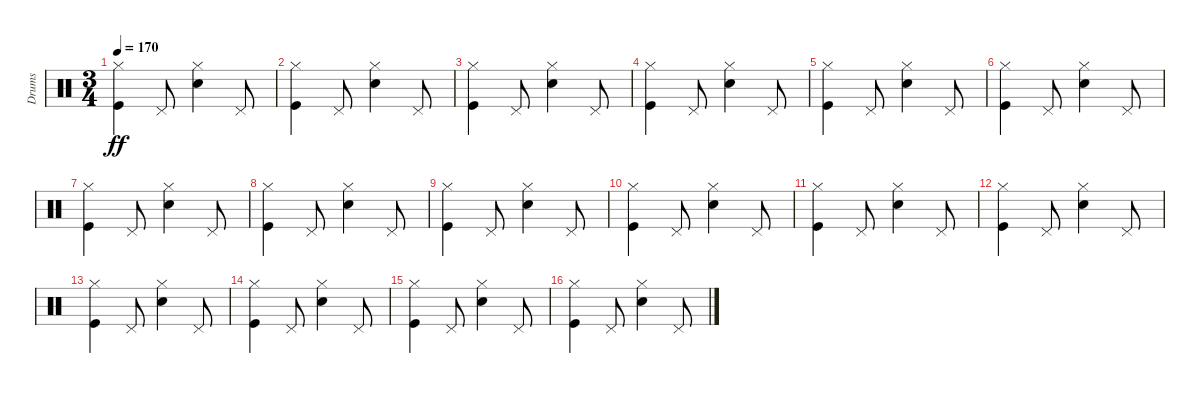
\track ("Drums" "Drums") {instrument percussion}
\staff {score}
\articulation defaults
\ts (3 4)
\tempo 170
\clef neutral
\ks c
("Hi-Hat (closed)" "Kick (hit)").4{dy ff} "Pedal Hi-Hat (hit)".8 ("Hi-Hat (closed)" "Snare (hit) 2").4 "Pedal Hi-Hat (hit)".8 |
("Hi-Hat (closed)" "Kick (hit)").4 "Pedal Hi-Hat (hit)".8 ("Hi-Hat (closed)" "Snare (hit) 2").4 "Pedal Hi-Hat (hit)".8 |
("Hi-Hat (closed)" "Kick (hit)").4 "Pedal Hi-Hat (hit)".8 ("Hi-Hat (closed)" "Snare (hit) 2").4 "Pedal Hi-Hat (hit)".8 |
("Hi-Hat (closed)" "Kick (hit)").4 "Pedal Hi-Hat (hit)".8 ("Hi-Hat (closed)" "Snare (hit) 2").4 "Pedal Hi-Hat (hit)".8 |
("Hi-Hat (closed)" "Kick (hit)").4 "Pedal Hi-Hat (hit)".8 ("Hi-Hat (closed)" "Snare (hit) 2").4 "Pedal Hi-Hat (hit)".8 |
("Hi-Hat (closed)" "Kick (hit)").4 "Pedal Hi-Hat (hit)".8 ("Hi-Hat (closed)" "Snare (hit) 2").4 "Pedal Hi-Hat (hit)".8 |
("Hi-Hat (closed)" "Kick (hit)").4 "Pedal Hi-Hat (hit)".8 ("Hi-Hat (closed)" "Snare (hit) 2").4 "Pedal Hi-Hat (hit)".8 |
("Hi-Hat (closed)" "Kick (hit)").4 "Pedal Hi-Hat (hit)".8 ("Hi-Hat (closed)" "Snare (hit) 2").4 "Pedal Hi-Hat (hit)".8 |
("Hi-Hat (closed)" "Kick (hit)").4 "Pedal Hi-Hat (hit)".8 ("Hi-Hat (closed)" "Snare (hit) 2").4 "Pedal Hi-Hat (hit)".8 |
("Hi-Hat (closed)" "Kick (hit)").4 "Pedal Hi-Hat (hit)".8 ("Hi-Hat (closed)" "Snare (hit) 2").4 "Pedal Hi-Hat (hit)".8 |
("Hi-Hat (closed)" "Kick (hit)").4 "Pedal Hi-Hat (hit)".8 ("Hi-Hat (closed)" "Snare (hit) 2").4 "Pedal Hi-Hat (hit)".8 |
("Hi-Hat (closed)" "Kick (hit)").4 "Pedal Hi-Hat (hit)".8 ("Hi-Hat (closed)" "Snare (hit) 2").4 "Pedal Hi-Hat (hit)".8 |
("Hi-Hat (closed)" "Kick (hit)").4 "Pedal Hi-Hat (hit)".8 ("Hi-Hat (closed)" "Snare (hit) 2").4 "Pedal Hi-Hat (hit)".8 |
("Hi-Hat (closed)" "Kick (hit)").4 "Pedal Hi-Hat (hit)".8 ("Hi-Hat (closed)" "Snare (hit) 2").4 "Pedal Hi-Hat (hit)".8 |
("Hi-Hat (closed)" "Kick (hit)").4 "Pedal Hi-Hat (hit)".8 ("Hi-Hat (closed)" "Snare (hit) 2").4 "Pedal Hi-Hat (hit)".8 |
("Hi-Hat (closed)" "Kick (hit)").4 "Pedal Hi-Hat (hit)".8 ("Hi-Hat (closed)" "Snare (hit) 2").4 "Pedal Hi-Hat (hit)".8
